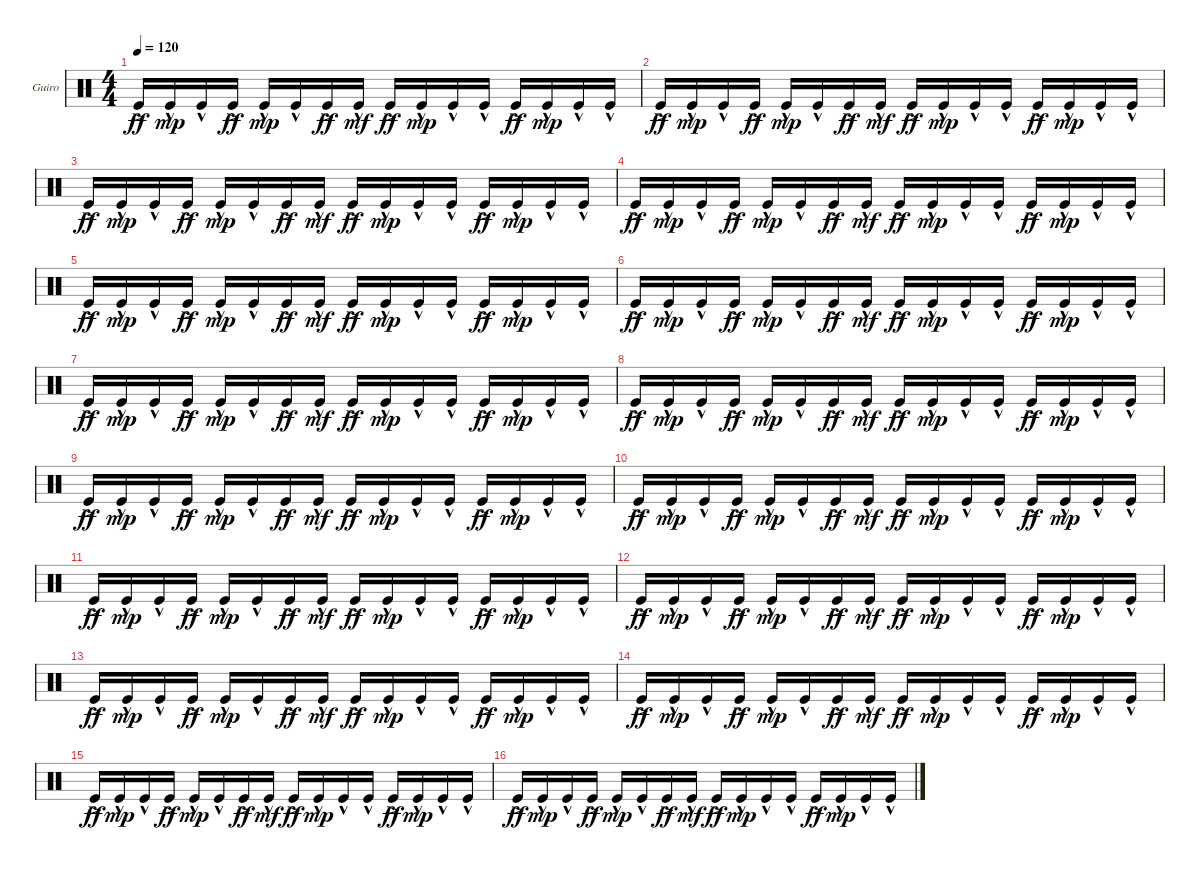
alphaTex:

\defaultSystemsLayout 4
\bracketExtendMode groupsimilarinstruments
\firstSystemTrackNameOrientation horizontal
\otherSystemsTrackNameOrientation horizontal
\track ("Guiro" "Guiro") {instrument percussion}
\staff {score}
\articulation defaults
\ts (4 4)
\tempo 120
\clef neutral
\scale
0.333333
\ks c "Kick (hit)"{ac}.16{dy ff} "Kick (hit)"{hac}.16{dy mp} "Kick (hit)"{hac}.16 "Kick (hit)"{ac}.16{dy ff} "Kick (hit)"{hac}.16{dy mp} "Kick (hit)"{hac}.16 "Kick (hit)"{ac}.16{dy ff} "Kick (hit)"{hac}.16{dy mf} "Kick (hit)"{ac}.16{dy ff} "Kick (hit)"{hac}.16{dy mp} "Kick (hit)"{hac}.16 "Kick (hit)"{hac}.16 "Kick (hit)"{ac}.16{dy ff} "Kick (hit)"{hac}.16{dy mp} "Kick (hit)"{hac}.16 "Kick (hit)"{hac}.16
|
\scale
0.333333 "Kick (hit)"{ac}.16{dy ff} "Kick (hit)"{hac}.16{dy mp} "Kick (hit)"{hac}.16 "Kick (hit)"{ac}.16{dy ff} "Kick (hit)"{hac}.16{dy mp} "Kick (hit)"{hac}.16 "Kick (hit)"{ac}.16{dy ff} "Kick (hit)"{hac}.16{dy mf} "Kick (hit)"{ac}.16{dy ff} "Kick (hit)"{hac}.16{dy mp} "Kick (hit)"{hac}.16 "Kick (hit)"{hac}.16 "Kick (hit)"{ac}.16{dy ff} "Kick (hit)"{hac}.16{dy mp} "Kick (hit)"{hac}.16 "Kick (hit)"{hac}.16 |
\scale
0.333333 "Kick (hit)"{ac}.16{dy ff} "Kick (hit)"{hac}.16{dy mp} "Kick (hit)"{hac}.16 "Kick (hit)"{ac}.16{dy ff} "Kick (hit)"{hac}.16{dy mp} "Kick (hit)"{hac}.16 "Kick (hit)"{ac}.16{dy ff} "Kick (hit)"{hac}.16{dy mf} "Kick (hit)"{ac}.16{dy ff} "Kick (hit)"{hac}.16{dy mp} "Kick (hit)"{hac}.16 "Kick (hit)"{hac}.16 "Kick (hit)"{ac}.16{dy ff} "Kick (hit)"{hac}.16{dy mp} "Kick (hit)"{hac}.16 "Kick (hit)"{hac}.16 |
\scale
0.333333 "Kick (hit)"{ac}.16{dy ff} "Kick (hit)"{hac}.16{dy mp} "Kick (hit)"{hac}.16 "Kick (hit)"{ac}.16{dy ff} "Kick (hit)"{hac}.16{dy mp} "Kick (hit)"{hac}.16 "Kick (hit)"{ac}.16{dy ff} "Kick (hit)"{hac}.16{dy mf} "Kick (hit)"{ac}.16{dy ff} "Kick (hit)"{hac}.16{dy mp} "Kick (hit)"{hac}.16 "Kick (hit)"{hac}.16 "Kick (hit)"{ac}.16{dy ff} "Kick (hit)"{hac}.16{dy mp} "Kick (hit)"{hac}.16 "Kick (hit)"{hac}.16 |
\scale
0.333333 "Kick (hit)"{ac}.16{dy ff} "Kick (hit)"{hac}.16{dy mp} "Kick (hit)"{hac}.16 "Kick (hit)"{ac}.16{dy ff} "Kick (hit)"{hac}.16{dy mp} "Kick (hit)"{hac}.16 "Kick (hit)"{ac}.16{dy ff} "Kick (hit)"{hac}.16{dy mf} "Kick (hit)"{ac}.16{dy ff} "Kick (hit)"{hac}.16{dy mp} "Kick (hit)"{hac}.16 "Kick (hit)"{hac}.16 "Kick (hit)"{ac}.16{dy ff} "Kick (hit)"{hac}.16{dy mp} "Kick (hit)"{hac}.16 "Kick (hit)"{hac}.16 |
\scale
0.333333 "Kick (hit)"{ac}.16{dy ff} "Kick (hit)"{hac}.16{dy mp} "Kick (hit)"{hac}.16 "Kick (hit)"{ac}.16{dy ff} "Kick (hit)"{hac}.16{dy mp} "Kick (hit)"{hac}.16 "Kick (hit)"{ac}.16{dy ff} "Kick (hit)"{hac}.16{dy mf} "Kick (hit)"{ac}.16{dy ff} "Kick (hit)"{hac}.16{dy mp} "Kick (hit)"{hac}.16 "Kick (hit)"{hac}.16 "Kick (hit)"{ac}.16{dy ff} "Kick (hit)"{hac}.16{dy mp} "Kick (hit)"{hac}.16 "Kick (hit)"{hac}.16 |
\scale
0.333333 "Kick (hit)"{ac}.16{dy ff} "Kick (hit)"{hac}.16{dy mp} "Kick (hit)"{hac}.16 "Kick (hit)"{ac}.16{dy ff} "Kick (hit)"{hac}.16{dy mp} "Kick (hit)"{hac}.16 "Kick (hit)"{ac}.16{dy ff} "Kick (hit)"{hac}.16{dy mf} "Kick (hit)"{ac}.16{dy ff} "Kick (hit)"{hac}.16{dy mp} "Kick (hit)"{hac}.16 "Kick (hit)"{hac}.16 "Kick (hit)"{ac}.16{dy ff} "Kick (hit)"{hac}.16{dy mp} "Kick (hit)"{hac}.16 "Kick (hit)"{hac}.16 |
\scale
0.333333 "Kick (hit)"{ac}.16{dy ff} "Kick (hit)"{hac}.16{dy mp} "Kick (hit)"{hac}.16 "Kick (hit)"{ac}.16{dy ff} "Kick (hit)"{hac}.16{dy mp} "Kick (hit)"{hac}.16 "Kick (hit)"{ac}.16{dy ff} "Kick (hit)"{hac}.16{dy mf} "Kick (hit)"{ac}.16{dy ff} "Kick (hit)"{hac}.16{dy mp} "Kick (hit)"{hac}.16 "Kick (hit)"{hac}.16 "Kick (hit)"{ac}.16{dy ff} "Kick (hit)"{hac}.16{dy mp} "Kick (hit)"{hac}.16 "Kick (hit)"{hac}.16 |
\scale
0.333333 "Kick (hit)"{ac}.16{dy ff} "Kick (hit)"{hac}.16{dy mp} "Kick (hit)"{hac}.16 "Kick (hit)"{ac}.16{dy ff} "Kick (hit)"{hac}.16{dy mp} "Kick (hit)"{hac}.16 "Kick (hit)"{ac}.16{dy ff} "Kick (hit)"{hac}.16{dy mf} "Kick (hit)"{ac}.16{dy ff} "Kick (hit)"{hac}.16{dy mp} "Kick (hit)"{hac}.16 "Kick (hit)"{hac}.16 "Kick (hit)"{ac}.16{dy ff} "Kick (hit)"{hac}.16{dy mp} "Kick (hit)"{hac}.16 "Kick (hit)"{hac}.16 |
\scale
0.333333 "Kick (hit)"{ac}.16{dy ff} "Kick (hit)"{hac}.16{dy mp} "Kick (hit)"{hac}.16 "Kick (hit)"{ac}.16{dy ff} "Kick (hit)"{hac}.16{dy mp} "Kick (hit)"{hac}.16 "Kick (hit)"{ac}.16{dy ff} "Kick (hit)"{hac}.16{dy mf} "Kick (hit)"{ac}.16{dy ff} "Kick (hit)"{hac}.16{dy mp} "Kick (hit)"{hac}.16 "Kick (hit)"{hac}.16 "Kick (hit)"{ac}.16{dy ff} "Kick (hit)"{hac}.16{dy mp} "Kick (hit)"{hac}.16 "Kick (hit)"{hac}.16 |
\scale
0.333333 "Kick (hit)"{ac}.16{dy ff} "Kick (hit)"{hac}.16{dy mp} "Kick (hit)"{hac}.16 "Kick (hit)"{ac}.16{dy ff} "Kick (hit)"{hac}.16{dy mp} "Kick (hit)"{hac}.16 "Kick (hit)"{ac}.16{dy ff} "Kick (hit)"{hac}.16{dy mf} "Kick (hit)"{ac}.16{dy ff} "Kick (hit)"{hac}.16{dy mp} "Kick (hit)"{hac}.16 "Kick (hit)"{hac}.16 "Kick (hit)"{ac}.16{dy ff} "Kick (hit)"{hac}.16{dy mp} "Kick (hit)"{hac}.16 "Kick (hit)"{hac}.16 |
\scale
0.333333 "Kick (hit)"{ac}.16{dy ff} "Kick (hit)"{hac}.16{dy mp} "Kick (hit)"{hac}.16 "Kick (hit)"{ac}.16{dy ff} "Kick (hit)"{hac}.16{dy mp} "Kick (hit)"{hac}.16 "Kick (hit)"{ac}.16{dy ff} "Kick (hit)"{hac}.16{dy mf} "Kick (hit)"{ac}.16{dy ff} "Kick (hit)"{hac}.16{dy mp} "Kick (hit)"{hac}.16 "Kick (hit)"{hac}.16 "Kick (hit)"{ac}.16{dy ff} "Kick (hit)"{hac}.16{dy mp} "Kick (hit)"{hac}.16 "Kick (hit)"{hac}.16 |
\scale
0.333333 "Kick (hit)"{ac}.16{dy ff} "Kick (hit)"{hac}.16{dy mp} "Kick (hit)"{hac}.16 "Kick (hit)"{ac}.16{dy ff} "Kick (hit)"{hac}.16{dy mp} "Kick (hit)"{hac}.16 "Kick (hit)"{ac}.16{dy ff} "Kick (hit)"{hac}.16{dy mf} "Kick (hit)"{ac}.16{dy ff} "Kick (hit)"{hac}.16{dy mp} "Kick (hit)"{hac}.16 "Kick (hit)"{hac}.16 "Kick (hit)"{ac}.16{dy ff} "Kick (hit)"{hac}.16{dy mp} "Kick (hit)"{hac}.16 "Kick (hit)"{hac}.16 |
\scale
0.333333 "Kick (hit)"{ac}.16{dy ff} "Kick (hit)"{hac}.16{dy mp} "Kick (hit)"{hac}.16 "Kick (hit)"{ac}.16{dy ff} "Kick (hit)"{hac}.16{dy mp} "Kick (hit)"{hac}.16 "Kick (hit)"{ac}.16{dy ff} "Kick (hit)"{hac}.16{dy mf} "Kick (hit)"{ac}.16{dy ff} "Kick (hit)"{hac}.16{dy mp} "Kick (hit)"{hac}.16 "Kick (hit)"{hac}.16 "Kick (hit)"{ac}.16{dy ff} "Kick (hit)"{hac}.16{dy mp} "Kick (hit)"{hac}.16 "Kick (hit)"{hac}.16 |
\scale
0.333333 "Kick (hit)"{ac}.16{dy ff} "Kick (hit)"{hac}.16{dy mp} "Kick (hit)"{hac}.16 "Kick (hit)"{ac}.16{dy ff} "Kick (hit)"{hac}.16{dy mp} "Kick (hit)"{hac}.16 "Kick (hit)"{ac}.16{dy ff} "Kick (hit)"{hac}.16{dy mf} "Kick (hit)"{ac}.16{dy ff} "Kick (hit)"{hac}.16{dy mp} "Kick (hit)"{hac}.16 "Kick (hit)"{hac}.16 "Kick (hit)"{ac}.16{dy ff} "Kick (hit)"{hac}.16{dy mp} "Kick (hit)"{hac}.16 "Kick (hit)"{hac}.16 |
\scale
0.333333 "Kick (hit)"{ac}.16{dy ff} "Kick (hit)"{hac}.16{dy mp} "Kick (hit)"{hac}.16 "Kick (hit)"{ac}.16{dy ff} "Kick (hit)"{hac}.16{dy mp} "Kick (hit)"{hac}.16 "Kick (hit)"{ac}.16{dy ff} "Kick (hit)"{hac}.16{dy mf} "Kick (hit)"{ac}.16{dy ff} "Kick (hit)"{hac}.16{dy mp} "Kick (hit)"{hac}.16 "Kick (hit)"{hac}.16 "Kick (hit)"{ac}.16{dy ff} "Kick (hit)"{hac}.16{dy mp} "Kick (hit)"{hac}.16 "Kick (hit)"{hac}.16
